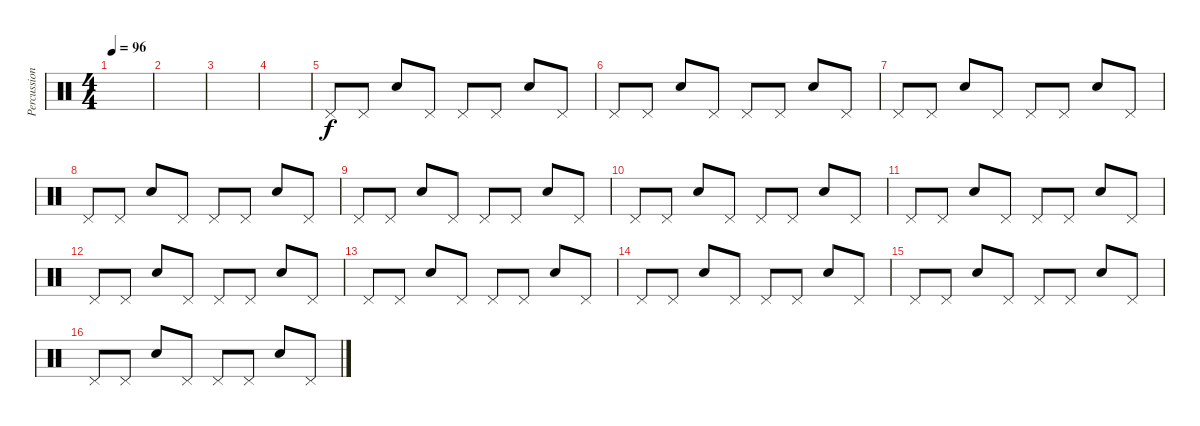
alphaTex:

\track ("Percussions" "Percussion") {instrument percussion}
\staff {score}
\articulation defaults
\ts (4 4)
\tempo 96
\clef neutral
\ks c
|
|
|
|
"Pedal Hi-Hat (hit)".8 "Pedal Hi-Hat (hit)".8 "Snare (hit) 2".8 "Pedal Hi-Hat (hit)".8 "Pedal Hi-Hat (hit)".8 "Pedal Hi-Hat (hit)".8 "Snare (hit) 2".8 "Pedal Hi-Hat (hit)".8 |
"Pedal Hi-Hat (hit)".8 "Pedal Hi-Hat (hit)".8 "Snare (hit) 2".8 "Pedal Hi-Hat (hit)".8 "Pedal Hi-Hat (hit)".8 "Pedal Hi-Hat (hit)".8 "Snare (hit) 2".8 "Pedal Hi-Hat (hit)".8 |
"Pedal Hi-Hat (hit)".8 "Pedal Hi-Hat (hit)".8 "Snare (hit) 2".8 "Pedal Hi-Hat (hit)".8 "Pedal Hi-Hat (hit)".8 "Pedal Hi-Hat (hit)".8 "Snare (hit) 2".8 "Pedal Hi-Hat (hit)".8 |
"Pedal Hi-Hat (hit)".8 "Pedal Hi-Hat (hit)".8 "Snare (hit) 2".8 "Pedal Hi-Hat (hit)".8 "Pedal Hi-Hat (hit)".8 "Pedal Hi-Hat (hit)".8 "Snare (hit) 2".8 "Pedal Hi-Hat (hit)".8 |
"Pedal Hi-Hat (hit)".8 "Pedal Hi-Hat (hit)".8 "Snare (hit) 2".8 "Pedal Hi-Hat (hit)".8 "Pedal Hi-Hat (hit)".8 "Pedal Hi-Hat (hit)".8 "Snare (hit) 2".8 "Pedal Hi-Hat (hit)".8 |
"Pedal Hi-Hat (hit)".8 "Pedal Hi-Hat (hit)".8 "Snare (hit) 2".8 "Pedal Hi-Hat (hit)".8 "Pedal Hi-Hat (hit)".8 "Pedal Hi-Hat (hit)".8 "Snare (hit) 2".8 "Pedal Hi-Hat (hit)".8 |
"Pedal Hi-Hat (hit)".8 "Pedal Hi-Hat (hit)".8 "Snare (hit) 2".8 "Pedal Hi-Hat (hit)".8 "Pedal Hi-Hat (hit)".8 "Pedal Hi-Hat (hit)".8 "Snare (hit) 2".8 "Pedal Hi-Hat (hit)".8 |
"Pedal Hi-Hat (hit)".8 "Pedal Hi-Hat (hit)".8 "Snare (hit) 2".8 "Pedal Hi-Hat (hit)".8 "Pedal Hi-Hat (hit)".8 "Pedal Hi-Hat (hit)".8 "Snare (hit) 2".8 "Pedal Hi-Hat (hit)".8 |
"Pedal Hi-Hat (hit)".8 "Pedal Hi-Hat (hit)".8 "Snare (hit) 2".8 "Pedal Hi-Hat (hit)".8 "Pedal Hi-Hat (hit)".8 "Pedal Hi-Hat (hit)".8 "Snare (hit) 2".8 "Pedal Hi-Hat (hit)".8 |
"Pedal Hi-Hat (hit)".8 "Pedal Hi-Hat (hit)".8 "Snare (hit) 2".8 "Pedal Hi-Hat (hit)".8 "Pedal Hi-Hat (hit)".8 "Pedal Hi-Hat (hit)".8 "Snare (hit) 2".8 "Pedal Hi-Hat (hit)".8 |
"Pedal Hi-Hat (hit)".8 "Pedal Hi-Hat (hit)".8 "Snare (hit) 2".8 "Pedal Hi-Hat (hit)".8 "Pedal Hi-Hat (hit)".8 "Pedal Hi-Hat (hit)".8 "Snare (hit) 2".8 "Pedal Hi-Hat (hit)".8 |
"Pedal Hi-Hat (hit)".8 "Pedal Hi-Hat (hit)".8 "Snare (hit) 2".8 "Pedal Hi-Hat (hit)".8 "Pedal Hi-Hat (hit)".8 "Pedal Hi-Hat (hit)".8 "Snare (hit) 2".8 "Pedal Hi-Hat (hit)".8
